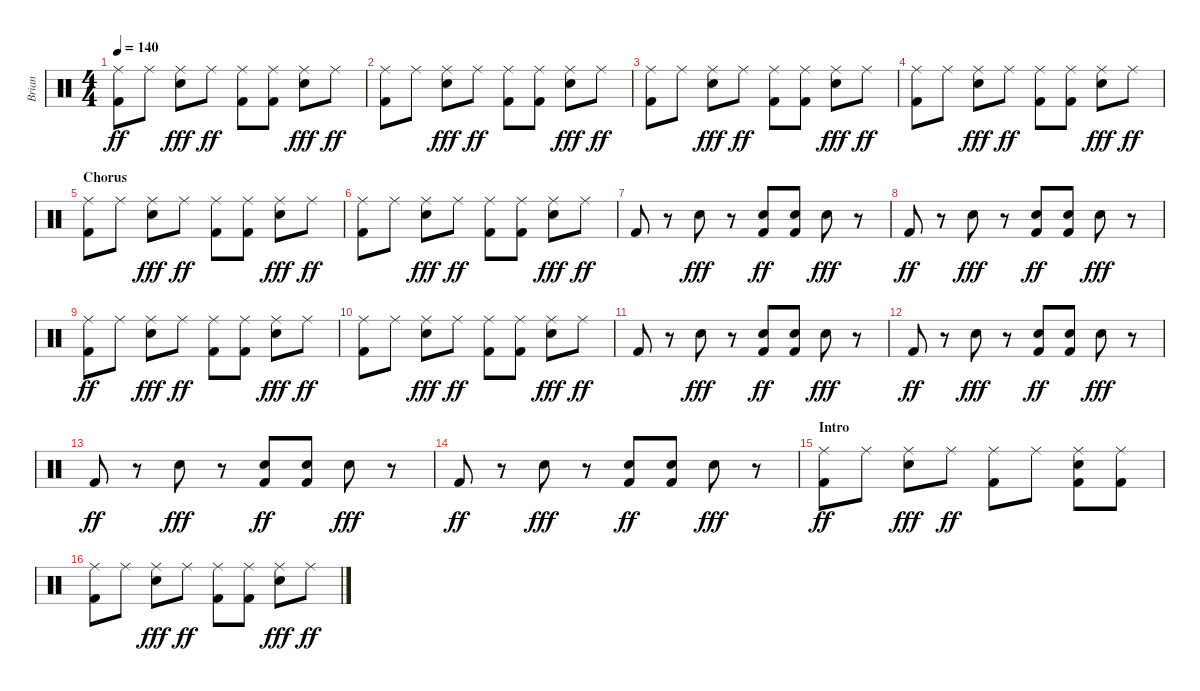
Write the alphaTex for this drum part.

\track ("Brian" "Brian") {instrument percussion}
\staff {score}
\articulation defaults
\ts (4 4)
\tempo 140
\clef neutral
\ks c
("Ride (middle)" "Kick (hit) 2").8{dy ff} "Ride (middle)".8 ("Ride (middle)" "Snare (hit) 2").8{dy fff} "Ride (middle)".8{dy ff} ("Ride (middle)" "Kick (hit) 2").8 ("Ride (middle)" "Kick (hit) 2").8 ("Ride (middle)" "Snare (hit) 2").8{dy fff} "Ride (middle)".8{dy ff} |
("Ride (middle)" "Kick (hit) 2").8 "Ride (middle)".8 ("Ride (middle)" "Snare (hit) 2").8{dy fff} "Ride (middle)".8{dy ff} ("Ride (middle)" "Kick (hit) 2").8 ("Ride (middle)" "Kick (hit) 2").8 ("Ride (middle)" "Snare (hit) 2").8{dy fff} "Ride (middle)".8{dy ff} |
("Ride (middle)" "Kick (hit) 2").8 "Ride (middle)".8 ("Ride (middle)" "Snare (hit) 2").8{dy fff} "Ride (middle)".8{dy ff} ("Ride (middle)" "Kick (hit) 2").8 ("Ride (middle)" "Kick (hit) 2").8 ("Ride (middle)" "Snare (hit) 2").8{dy fff} "Ride (middle)".8{dy ff} |
("Ride (middle)" "Kick (hit) 2").8 "Ride (middle)".8 ("Ride (middle)" "Snare (hit) 2").8{dy fff} "Ride (middle)".8{dy ff} ("Ride (middle)" "Kick (hit) 2").8 ("Ride (middle)" "Kick (hit) 2").8 ("Ride (middle)" "Snare (hit) 2").8{dy fff} "Ride (middle)".8{dy ff} |
\section ("" "Chorus")
("Ride (middle)" "Kick (hit) 2").8 "Ride (middle)".8 ("Ride (middle)" "Snare (hit) 2").8{dy fff} "Ride (middle)".8{dy ff} ("Ride (middle)" "Kick (hit) 2").8 ("Ride (middle)" "Kick (hit) 2").8 ("Ride (middle)" "Snare (hit) 2").8{dy fff} "Ride (middle)".8{dy ff} |
("Ride (middle)" "Kick (hit) 2").8 "Ride (middle)".8 ("Ride (middle)" "Snare (hit) 2").8{dy fff} "Ride (middle)".8{dy ff} ("Ride (middle)" "Kick (hit) 2").8 ("Ride (middle)" "Kick (hit) 2").8 ("Ride (middle)" "Snare (hit) 2").8{dy fff} "Ride (middle)".8{dy ff} |
"Kick (hit) 2".8 r.8 "Snare (hit) 2".8{dy fff} r.8 ("Snare (hit) 2" "Kick (hit) 2").8{dy ff} ("Snare (hit) 2" "Kick (hit) 2").8 "Snare (hit) 2".8{dy fff} r.8 |
"Kick (hit) 2".8{dy ff} r.8 "Snare (hit) 2".8{dy fff} r.8 ("Snare (hit) 2" "Kick (hit) 2").8{dy ff} ("Snare (hit) 2" "Kick (hit) 2").8 "Snare (hit) 2".8{dy fff} r.8 |
("Ride (middle)" "Kick (hit) 2").8{dy ff} "Ride (middle)".8 ("Ride (middle)" "Snare (hit) 2").8{dy fff} "Ride (middle)".8{dy ff} ("Ride (middle)" "Kick (hit) 2").8 ("Ride (middle)" "Kick (hit) 2").8 ("Ride (middle)" "Snare (hit) 2").8{dy fff} "Ride (middle)".8{dy ff} |
("Ride (middle)" "Kick (hit) 2").8 "Ride (middle)".8 ("Ride (middle)" "Snare (hit) 2").8{dy fff} "Ride (middle)".8{dy ff} ("Ride (middle)" "Kick (hit) 2").8 ("Ride (middle)" "Kick (hit) 2").8 ("Ride (middle)" "Snare (hit) 2").8{dy fff} "Ride (middle)".8{dy ff} |
"Kick (hit) 2".8 r.8 "Snare (hit) 2".8{dy fff} r.8 ("Snare (hit) 2" "Kick (hit) 2").8{dy ff} ("Snare (hit) 2" "Kick (hit) 2").8 "Snare (hit) 2".8{dy fff} r.8 |
"Kick (hit) 2".8{dy ff} r.8 "Snare (hit) 2".8{dy fff} r.8 ("Snare (hit) 2" "Kick (hit) 2").8{dy ff} ("Snare (hit) 2" "Kick (hit) 2").8 "Snare (hit) 2".8{dy fff} r.8 |
"Kick (hit) 2".8{dy ff} r.8 "Snare (hit) 2".8{dy fff} r.8 ("Snare (hit) 2" "Kick (hit) 2").8{dy ff} ("Snare (hit) 2" "Kick (hit) 2").8 "Snare (hit) 2".8{dy fff} r.8 |
"Kick (hit) 2".8{dy ff} r.8 "Snare (hit) 2".8{dy fff} r.8 ("Snare (hit) 2" "Kick (hit) 2").8{dy ff} ("Snare (hit) 2" "Kick (hit) 2").8 "Snare (hit) 2".8{dy fff} r.8 |
\section ("" "Intro")
("Ride (middle)" "Kick (hit) 2").8{dy ff} "Ride (middle)".8 ("Ride (middle)" "Snare (hit) 2").8{dy fff} "Ride (middle)".8{dy ff} ("Ride (middle)" "Kick (hit) 2").8 "Ride (middle)".8 ("Ride (middle)" "Snare (hit) 2" "Kick (hit) 2").8 ("Ride (middle)" "Kick (hit) 2").8 |
("Ride (middle)" "Kick (hit) 2").8 "Ride (middle)".8 ("Ride (middle)" "Snare (hit) 2").8{dy fff} "Ride (middle)".8{dy ff} ("Ride (middle)" "Kick (hit) 2").8 ("Ride (middle)" "Kick (hit) 2").8 ("Ride (middle)" "Snare (hit) 2").8{dy fff} "Ride (middle)".8{dy ff}
